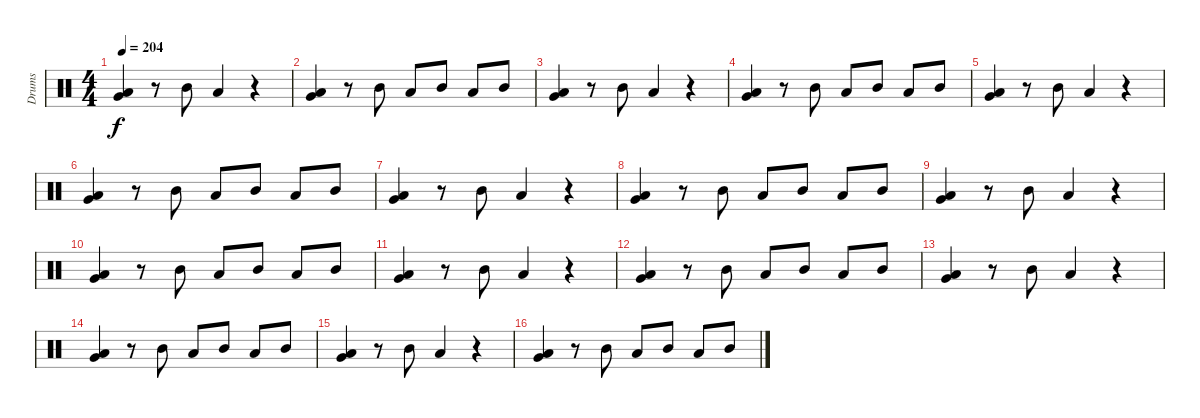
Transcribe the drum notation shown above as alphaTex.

\track ("Drums" "Drums") {instrument percussion}
\staff {score}
\articulation defaults
\ts (4 4)
\tempo 204
\clef neutral
\ks c
("Low Tom (hit)" "Very Low Tom (hit)").4{dy f} r.8 "Mid Tom (hit)".8 "Low Tom (hit)".4 r.4 |
("Low Tom (hit)" "Very Low Tom (hit)").4 r.8 "Mid Tom (hit)".8 "Low Tom (hit)".8 "Mid Tom (hit)".8 "Low Tom (hit)".8 "Mid Tom (hit)".8 |
("Very Low Tom (hit)" "Low Tom (hit)").4 r.8 "Mid Tom (hit)".8 "Low Tom (hit)".4 r.4 |
("Low Tom (hit)" "Very Low Tom (hit)").4 r.8 "Mid Tom (hit)".8 "Low Tom (hit)".8 "Mid Tom (hit)".8 "Low Tom (hit)".8 "Mid Tom (hit)".8 |
("Low Tom (hit)" "Very Low Tom (hit)").4 r.8 "Mid Tom (hit)".8 "Low Tom (hit)".4 r.4 |
("Low Tom (hit)" "Very Low Tom (hit)").4 r.8 "Mid Tom (hit)".8 "Low Tom (hit)".8 "Mid Tom (hit)".8 "Low Tom (hit)".8 "Mid Tom (hit)".8 |
("Very Low Tom (hit)" "Low Tom (hit)").4 r.8 "Mid Tom (hit)".8 "Low Tom (hit)".4 r.4 |
("Low Tom (hit)" "Very Low Tom (hit)").4 r.8 "Mid Tom (hit)".8 "Low Tom (hit)".8 "Mid Tom (hit)".8 "Low Tom (hit)".8 "Mid Tom (hit)".8 |
("Low Tom (hit)" "Very Low Tom (hit)").4 r.8 "Mid Tom (hit)".8 "Low Tom (hit)".4 r.4 |
("Low Tom (hit)" "Very Low Tom (hit)").4 r.8 "Mid Tom (hit)".8 "Low Tom (hit)".8 "Mid Tom (hit)".8 "Low Tom (hit)".8 "Mid Tom (hit)".8 |
("Low Tom (hit)" "Very Low Tom (hit)").4 r.8 "Mid Tom (hit)".8 "Low Tom (hit)".4 r.4 |
("Very Low Tom (hit)" "Low Tom (hit)").4 r.8 "Mid Tom (hit)".8 "Low Tom (hit)".8 "Mid Tom (hit)".8 "Low Tom (hit)".8 "Mid Tom (hit)".8 |
("Low Tom (hit)" "Very Low Tom (hit)").4 r.8 "Mid Tom (hit)".8 "Low Tom (hit)".4 r.4 |
("Low Tom (hit)" "Very Low Tom (hit)").4 r.8 "Mid Tom (hit)".8 "Low Tom (hit)".8 "Mid Tom (hit)".8 "Low Tom (hit)".8 "Mid Tom (hit)".8 |
("Very Low Tom (hit)" "Low Tom (hit)").4 r.8 "Mid Tom (hit)".8 "Low Tom (hit)".4 r.4 |
("Very Low Tom (hit)" "Low Tom (hit)").4 r.8 "Mid Tom (hit)".8 "Low Tom (hit)".8 "Mid Tom (hit)".8 "Low Tom (hit)".8 "Mid Tom (hit)".8
